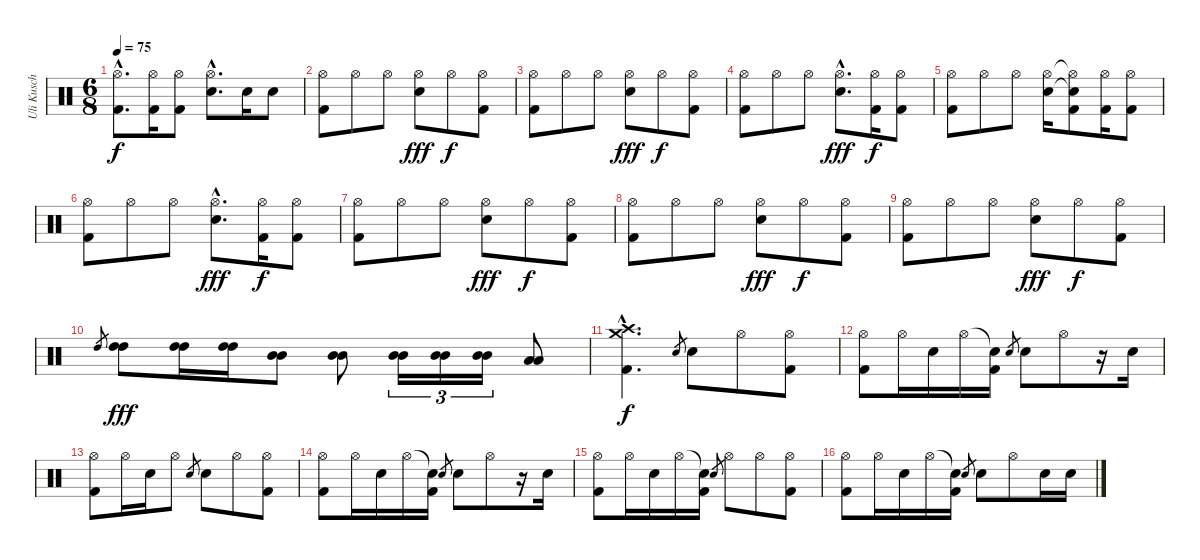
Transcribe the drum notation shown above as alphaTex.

\track ("Uli Kusch" "Uli Kusch") {instrument percussion}
\staff {score}
\articulation defaults
\ts (6 8)
\tempo 75
\clef neutral
\ks c
("Hi-Hat (open)"{hac} "Kick (hit) 2"{hac}).8{d dy f} ("Hi-Hat (open)" "Kick (hit) 2").16 ("Hi-Hat (open)" "Kick (hit) 2").8 ("Hi-Hat (open)"{hac} "Electric Snare (hit)"{hac}).8{d} "Electric Snare (hit)".16 "Electric Snare (hit)".8 |
("Hi-Hat (open)" "Kick (hit) 2").8 "Hi-Hat (open)".8 "Hi-Hat (open)".8 ("Hi-Hat (open)" "Electric Snare (hit)").8{dy fff} "Hi-Hat (open)".8{dy f} ("Hi-Hat (open)" "Kick (hit) 2").8 |
("Hi-Hat (open)" "Kick (hit) 2").8 "Hi-Hat (open)".8 "Hi-Hat (open)".8 ("Hi-Hat (open)" "Electric Snare (hit)").8{dy fff} "Hi-Hat (open)".8{dy f} ("Hi-Hat (open)" "Kick (hit) 2").8 |
("Hi-Hat (open)" "Kick (hit) 2").8 "Hi-Hat (open)".8 "Hi-Hat (open)".8 ("Hi-Hat (open)"{hac} "Electric Snare (hit)"{hac}).8{d dy fff} ("Hi-Hat (open)" "Kick (hit) 2").16{dy f} ("Hi-Hat (open)" "Kick (hit) 2").8 |
("Hi-Hat (open)" "Kick (hit) 2").8 "Hi-Hat (open)".8 "Hi-Hat (open)".8 ("Hi-Hat (open)" "Electric Snare (hit)").16 ("Hi-Hat (open)"{t} "Snare (hit)"{t} "Kick (hit) 2").8 ("Hi-Hat (open)" "Kick (hit) 2").16 ("Hi-Hat (open)" "Kick (hit) 2").8 |
("Hi-Hat (open)" "Kick (hit) 2").8 "Hi-Hat (open)".8 "Hi-Hat (open)".8 ("Hi-Hat (open)"{hac} "Electric Snare (hit)"{hac}).8{d dy fff} ("Hi-Hat (open)" "Kick (hit) 2").16{dy f} ("Hi-Hat (open)" "Kick (hit) 2").8 |
("Hi-Hat (open)" "Kick (hit) 2").8 "Hi-Hat (open)".8 "Hi-Hat (open)".8 ("Hi-Hat (open)" "Electric Snare (hit)").8{dy fff} "Hi-Hat (open)".8{dy f} ("Hi-Hat (open)" "Kick (hit) 2").8 |
("Hi-Hat (open)" "Kick (hit) 2").8 "Hi-Hat (open)".8 "Hi-Hat (open)".8 ("Hi-Hat (open)" "Electric Snare (hit)").8{dy fff} "Hi-Hat (open)".8{dy f} ("Hi-Hat (open)" "Kick (hit) 2").8 |
("Hi-Hat (open)" "Kick (hit) 2").8 "Hi-Hat (open)".8 "Hi-Hat (open)".8 ("Hi-Hat (open)" "Electric Snare (hit)").8{dy fff} "Hi-Hat (open)".8{dy f} ("Hi-Hat (open)" "Kick (hit) 2").8 |
"High Tom (hit)".8{gr} ("High Tom (hit)" "High Tom (hit)").8{dy fff} ("High Tom (hit)" "High Tom (hit)").16 ("High Tom (hit)" "High Tom (hit)").16 ("Mid Tom (hit)" "Mid Tom (hit)").8 ("Mid Tom (hit)" "Mid Tom (hit)").8 ("Mid Tom (hit)" "Mid Tom (hit)").16{tu (3 2)} ("Mid Tom (hit)" "Mid Tom (hit)").16{tu (3 2)} ("Mid Tom (hit)" "Mid Tom (hit)").16{tu (3 2)} ("Low Tom (hit)" "Low Tom (hit)").8 |
("Crash medium (hit)"{hac} "Crash high (hit)"{hac} "Kick (hit) 2"{hac}).4{d dy f} "Electric Snare (hit)".8{gr} "Electric Snare (hit)".8 "Hi-Hat (open)".8 ("Hi-Hat (open)" "Kick (hit) 2").8 |
("Hi-Hat (open)" "Kick (hit) 2").8 "Hi-Hat (open)".16 "Electric Snare (hit)".16 "Hi-Hat (open)".16 ("Snare (hit)"{t} "Kick (hit) 2").16 "Electric Snare (hit)".8{gr} "Electric Snare (hit)".8 "Hi-Hat (open)".8 r.16 "Electric Snare (hit)".16 |
("Hi-Hat (open)" "Kick (hit) 2").8 "Hi-Hat (open)".16 "Electric Snare (hit)".16 "Hi-Hat (open)".8 "Electric Snare (hit)".8{gr} "Electric Snare (hit)".8 "Hi-Hat (open)".8 ("Hi-Hat (open)" "Kick (hit) 2").8 |
("Hi-Hat (open)" "Kick (hit) 2").8 "Hi-Hat (open)".16 "Electric Snare (hit)".16 "Hi-Hat (open)".16 ("Snare (hit)"{t} "Kick (hit) 2").16 "Electric Snare (hit)".8{gr} "Electric Snare (hit)".8 "Hi-Hat (open)".8 r.16 "Electric Snare (hit)".16 |
("Hi-Hat (open)" "Kick (hit) 2").8 "Hi-Hat (open)".16 "Electric Snare (hit)".16 "Hi-Hat (open)".16 ("Snare (hit)"{t} "Kick (hit) 2").16 "Electric Snare (hit)".8{gr} "Hi-Hat (open)".8 "Hi-Hat (open)".8 ("Hi-Hat (open)" "Kick (hit) 2").8 |
("Hi-Hat (open)" "Kick (hit) 2").8 "Hi-Hat (open)".16 "Electric Snare (hit)".16 "Hi-Hat (open)".16 ("Snare (hit)"{t} "Kick (hit) 2").16 "Electric Snare (hit)".8{gr} "Electric Snare (hit)".8 "Hi-Hat (open)".8 "Electric Snare (hit)".16 "Electric Snare (hit)".16
